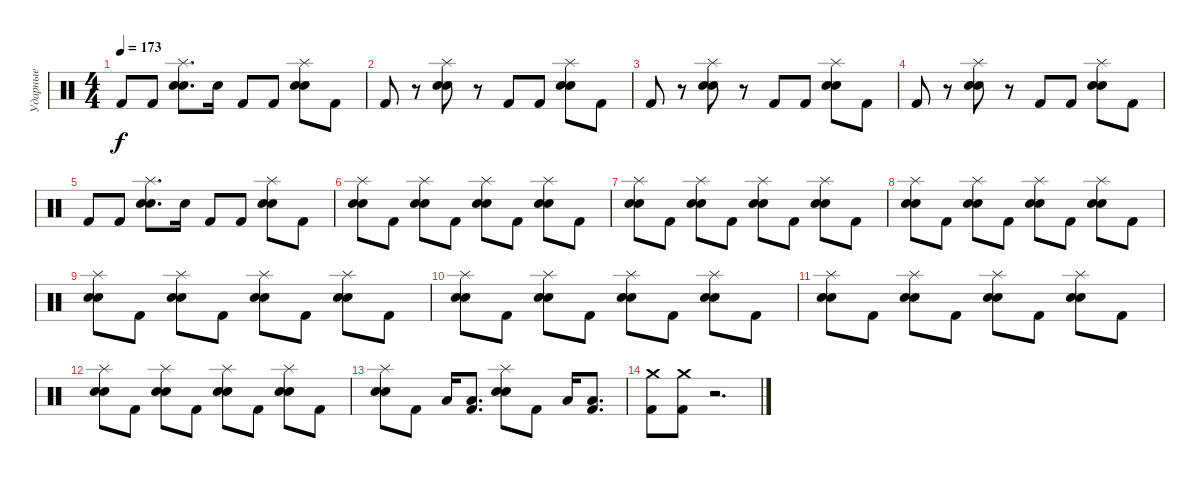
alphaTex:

\track ("Ударные" "Ударные") {instrument percussion}
\staff {score}
\articulation defaults
\ts (4 4)
\tempo 173
\clef neutral
\ks c "Kick (hit) 2".8{dy f} "Kick (hit) 2".8
("Splash (hit)" "Electric Snare (hit)" "Snare (hit) 2").8{d} "Electric Snare (hit)".16 "Kick (hit) 2".8 "Kick (hit) 2".8 ("Splash (hit)" "Electric Snare (hit)" "Snare (hit) 2").8 "Kick (hit) 2".8 |
"Kick (hit) 2".8 r.8 ("Splash (hit)" "Electric Snare (hit)" "Snare (hit) 2").8 r.8 "Kick (hit) 2".8 "Kick (hit) 2".8 ("Splash (hit)" "Electric Snare (hit)" "Snare (hit) 2").8 "Kick (hit) 2".8 |
"Kick (hit) 2".8 r.8 ("Splash (hit)" "Electric Snare (hit)" "Snare (hit) 2").8 r.8 "Kick (hit) 2".8 "Kick (hit) 2".8 ("Splash (hit)" "Electric Snare (hit)" "Snare (hit) 2").8 "Kick (hit) 2".8 |
"Kick (hit) 2".8 r.8 ("Splash (hit)" "Electric Snare (hit)" "Snare (hit) 2").8 r.8 "Kick (hit) 2".8 "Kick (hit) 2".8 ("Splash (hit)" "Electric Snare (hit)" "Snare (hit) 2").8 "Kick (hit) 2".8 |
"Kick (hit) 2".8 "Kick (hit) 2".8 ("Splash (hit)" "Electric Snare (hit)" "Snare (hit) 2").8{d} "Electric Snare (hit)".16 "Kick (hit) 2".8 "Kick (hit) 2".8 ("Splash (hit)" "Electric Snare (hit)" "Snare (hit) 2").8 "Kick (hit) 2".8 |
("Splash (hit)" "Electric Snare (hit)" "Snare (hit) 2").8 "Kick (hit) 2".8 ("Splash (hit)" "Electric Snare (hit)" "Snare (hit) 2").8 "Kick (hit) 2".8 ("Splash (hit)" "Electric Snare (hit)" "Snare (hit) 2").8 "Kick (hit) 2".8 ("Splash (hit)" "Electric Snare (hit)" "Snare (hit) 2").8 "Kick (hit) 2".8 |
("Splash (hit)" "Electric Snare (hit)" "Snare (hit) 2").8 "Kick (hit) 2".8 ("Splash (hit)" "Electric Snare (hit)" "Snare (hit) 2").8 "Kick (hit) 2".8 ("Splash (hit)" "Electric Snare (hit)" "Snare (hit) 2").8 "Kick (hit) 2".8 ("Splash (hit)" "Electric Snare (hit)" "Snare (hit) 2").8 "Kick (hit) 2".8 |
("Splash (hit)" "Electric Snare (hit)" "Snare (hit) 2").8 "Kick (hit) 2".8 ("Splash (hit)" "Electric Snare (hit)" "Snare (hit) 2").8 "Kick (hit) 2".8 ("Splash (hit)" "Electric Snare (hit)" "Snare (hit) 2").8 "Kick (hit) 2".8 ("Splash (hit)" "Electric Snare (hit)" "Snare (hit) 2").8 "Kick (hit) 2".8 |
("Splash (hit)" "Electric Snare (hit)" "Snare (hit) 2").8 "Kick (hit) 2".8 ("Splash (hit)" "Electric Snare (hit)" "Snare (hit) 2").8 "Kick (hit) 2".8 ("Splash (hit)" "Electric Snare (hit)" "Snare (hit) 2").8 "Kick (hit) 2".8 ("Splash (hit)" "Electric Snare (hit)" "Snare (hit) 2").8 "Kick (hit) 2".8 |
("Splash (hit)" "Electric Snare (hit)" "Snare (hit) 2").8 "Kick (hit) 2".8 ("Splash (hit)" "Electric Snare (hit)" "Snare (hit) 2").8 "Kick (hit) 2".8 ("Splash (hit)" "Electric Snare (hit)" "Snare (hit) 2").8 "Kick (hit) 2".8 ("Splash (hit)" "Electric Snare (hit)" "Snare (hit) 2").8 "Kick (hit) 2".8 |
("Splash (hit)" "Electric Snare (hit)" "Snare (hit) 2").8 "Kick (hit) 2".8 ("Splash (hit)" "Electric Snare (hit)" "Snare (hit) 2").8 "Kick (hit) 2".8 ("Splash (hit)" "Electric Snare (hit)" "Snare (hit) 2").8 "Kick (hit) 2".8 ("Splash (hit)" "Electric Snare (hit)" "Snare (hit) 2").8 "Kick (hit) 2".8 |
("Splash (hit)" "Electric Snare (hit)" "Snare (hit) 2").8 "Kick (hit) 2".8 ("Splash (hit)" "Electric Snare (hit)" "Snare (hit) 2").8 "Kick (hit) 2".8 ("Splash (hit)" "Electric Snare (hit)" "Snare (hit) 2").8 "Kick (hit) 2".8 ("Splash (hit)" "Electric Snare (hit)" "Snare (hit) 2").8 "Kick (hit) 2".8 |
("Splash (hit)" "Electric Snare (hit)" "Snare (hit) 2").8 "Kick (hit) 2".8 "Low Tom (hit)".16 ("Low Tom (hit)" "Kick (hit) 2").8{d} ("Splash (hit)" "Electric Snare (hit)" "Snare (hit) 2").8 "Kick (hit) 2".8 "Low Tom (hit)".16 ("Low Tom (hit)" "Kick (hit) 2").8{d} |
("Crash medium (hit)" "Kick (hit) 2").8 ("Crash medium (hit)" "Kick (hit) 2").8 r.2{d}
